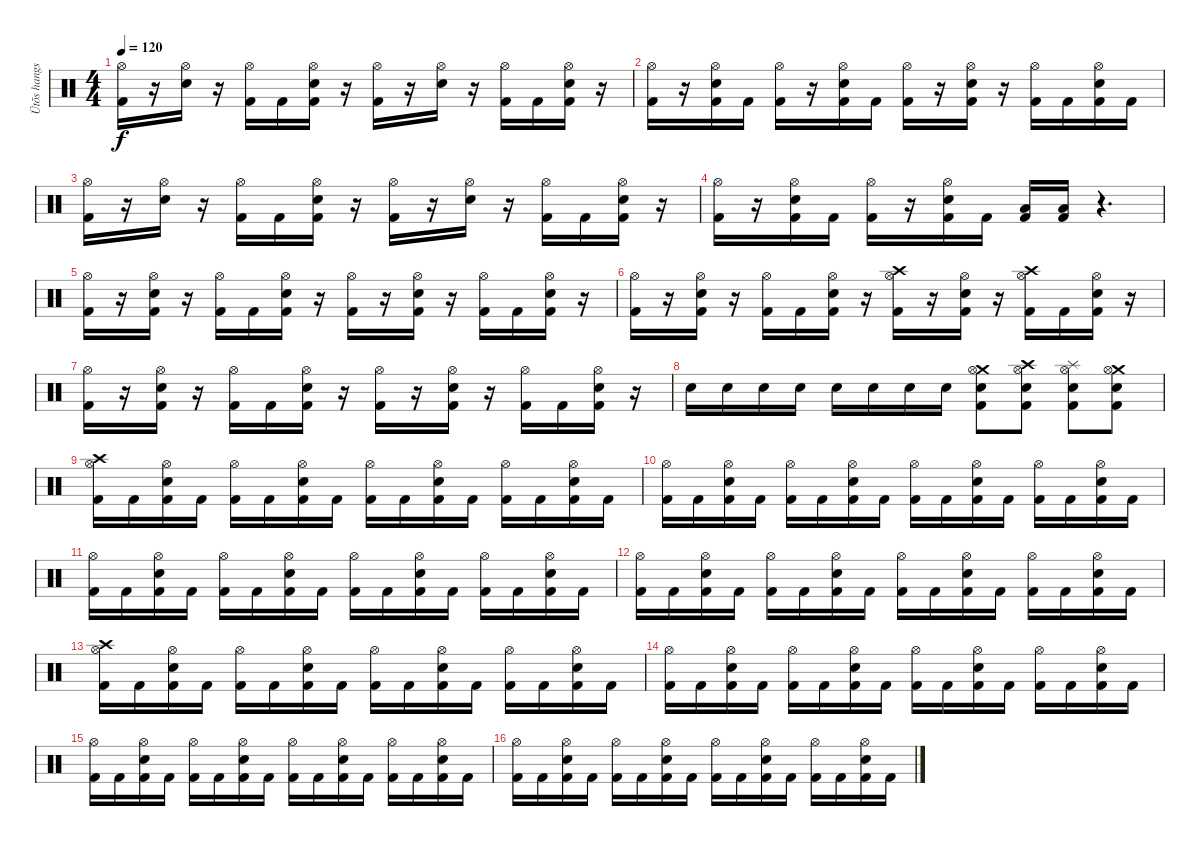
\track ("Ütõs hangszer" "Ütõs hangs") {instrument percussion}
\staff {score}
\articulation defaults
\ts (4 4)
\tempo 120
\clef neutral
\ks c
("Hi-Hat (open)" "Kick (hit) 2").16{dy f} r.16 ("Hi-Hat (open)" "Electric Snare (hit)").16 r.16 ("Hi-Hat (open)" "Kick (hit) 2").16 "Kick (hit) 2".16 ("Hi-Hat (open)" "Electric Snare (hit)" "Kick (hit) 2").16 r.16 ("Hi-Hat (open)" "Kick (hit) 2").16 r.16 ("Hi-Hat (open)" "Electric Snare (hit)").16 r.16 ("Hi-Hat (open)" "Kick (hit) 2").16 "Kick (hit) 2".16 ("Hi-Hat (open)" "Electric Snare (hit)" "Kick (hit) 2").16 r.16 |
("Hi-Hat (open)" "Kick (hit) 2").16 r.16 ("Hi-Hat (open)" "Electric Snare (hit)" "Kick (hit) 2").16 "Kick (hit) 2".16 ("Hi-Hat (open)" "Kick (hit) 2").16 r.16 ("Hi-Hat (open)" "Electric Snare (hit)" "Kick (hit) 2").16 "Kick (hit) 2".16 ("Hi-Hat (open)" "Kick (hit) 2").16 r.16 ("Hi-Hat (open)" "Electric Snare (hit)" "Kick (hit) 2").16 r.16 ("Hi-Hat (open)" "Kick (hit) 2").16 "Kick (hit) 2".16 ("Hi-Hat (open)" "Electric Snare (hit)" "Kick (hit) 2").16 "Kick (hit) 2".16 |
("Hi-Hat (open)" "Kick (hit) 2").16 r.16 ("Hi-Hat (open)" "Electric Snare (hit)").16 r.16 ("Hi-Hat (open)" "Kick (hit) 2").16 "Kick (hit) 2".16 ("Hi-Hat (open)" "Electric Snare (hit)" "Kick (hit) 2").16 r.16 ("Hi-Hat (open)" "Kick (hit) 2").16 r.16 ("Hi-Hat (open)" "Electric Snare (hit)").16 r.16 ("Hi-Hat (open)" "Kick (hit) 2").16 "Kick (hit) 2".16 ("Hi-Hat (open)" "Electric Snare (hit)" "Kick (hit) 2").16 r.16 |
("Hi-Hat (open)" "Kick (hit) 2").16 r.16 ("Hi-Hat (open)" "Electric Snare (hit)" "Kick (hit) 2").16 "Kick (hit) 2".16 ("Hi-Hat (open)" "Kick (hit) 2").16 r.16 ("Hi-Hat (open)" "Electric Snare (hit)" "Kick (hit) 2").16 "Kick (hit) 2".16 ("Low Floor Tom (hit)" "Kick (hit) 2").16 ("Low Floor Tom (hit)" "Kick (hit) 2").16 r.4{d} |
("Hi-Hat (open)" "Kick (hit) 2").16 r.16 ("Hi-Hat (open)" "Electric Snare (hit)" "Kick (hit) 2").16 r.16 ("Hi-Hat (open)" "Kick (hit) 2").16 "Kick (hit) 2".16 ("Hi-Hat (open)" "Electric Snare (hit)" "Kick (hit) 2").16 r.16 ("Hi-Hat (open)" "Kick (hit) 2").16 r.16 ("Hi-Hat (open)" "Electric Snare (hit)" "Kick (hit) 2").16 r.16 ("Hi-Hat (open)" "Kick (hit) 2").16 "Kick (hit) 2".16 ("Hi-Hat (open)" "Electric Snare (hit)" "Kick (hit) 2").16 r.16 |
("Hi-Hat (open)" "Kick (hit) 2").16 r.16 ("Hi-Hat (open)" "Electric Snare (hit)" "Kick (hit) 2").16 r.16 ("Hi-Hat (open)" "Kick (hit) 2").16 "Kick (hit) 2".16 ("Hi-Hat (open)" "Electric Snare (hit)" "Kick (hit) 2").16 r.16 ("Crash high (hit)" "Hi-Hat (open)" "Kick (hit) 2").16 r.16 ("Hi-Hat (open)" "Electric Snare (hit)" "Kick (hit) 2").16 r.16 ("Crash high (hit)" "Hi-Hat (open)" "Kick (hit) 2").16 "Kick (hit) 2".16 ("Hi-Hat (open)" "Electric Snare (hit)" "Kick (hit) 2").16 r.16 |
("Hi-Hat (open)" "Kick (hit) 2").16 r.16 ("Hi-Hat (open)" "Electric Snare (hit)" "Kick (hit) 2").16 r.16 ("Hi-Hat (open)" "Kick (hit) 2").16 "Kick (hit) 2".16 ("Hi-Hat (open)" "Electric Snare (hit)" "Kick (hit) 2").16 r.16 ("Hi-Hat (open)" "Kick (hit) 2").16 r.16 ("Hi-Hat (open)" "Electric Snare (hit)" "Kick (hit) 2").16 r.16 ("Hi-Hat (open)" "Kick (hit) 2").16 "Kick (hit) 2".16 ("Hi-Hat (open)" "Electric Snare (hit)" "Kick (hit) 2").16 r.16 |
"Electric Snare (hit)".16 "Electric Snare (hit)".16 "Electric Snare (hit)".16 "Electric Snare (hit)".16 "Electric Snare (hit)".16 "Electric Snare (hit)".16 "Electric Snare (hit)".16 "Electric Snare (hit)".16 ("Crash medium (hit)" "Hi-Hat (open)" "Electric Snare (hit)" "Kick (hit) 2").8 ("Crash high (hit)" "Hi-Hat (open)" "Electric Snare (hit)" "Kick (hit) 2").8 ("Splash (hit)" "Hi-Hat (open)" "Electric Snare (hit)" "Kick (hit) 2").8 ("Crash medium (hit)" "Hi-Hat (open)" "Electric Snare (hit)" "Kick (hit) 2").8 |
("Crash high (hit)" "Hi-Hat (open)" "Kick (hit) 2").16 "Kick (hit) 2".16 ("Hi-Hat (open)" "Electric Snare (hit)" "Kick (hit) 2").16 "Kick (hit) 2".16 ("Hi-Hat (open)" "Kick (hit) 2").16 "Kick (hit) 2".16 ("Hi-Hat (open)" "Electric Snare (hit)" "Kick (hit) 2").16 "Kick (hit) 2".16 ("Hi-Hat (open)" "Kick (hit) 2").16 "Kick (hit) 2".16 ("Hi-Hat (open)" "Electric Snare (hit)" "Kick (hit) 2").16 "Kick (hit) 2".16 ("Hi-Hat (open)" "Kick (hit) 2").16 "Kick (hit) 2".16 ("Hi-Hat (open)" "Electric Snare (hit)" "Kick (hit) 2").16 "Kick (hit) 2".16 |
("Hi-Hat (open)" "Kick (hit) 2").16 "Kick (hit) 2".16 ("Hi-Hat (open)" "Electric Snare (hit)" "Kick (hit) 2").16 "Kick (hit) 2".16 ("Hi-Hat (open)" "Kick (hit) 2").16 "Kick (hit) 2".16 ("Hi-Hat (open)" "Electric Snare (hit)" "Kick (hit) 2").16 "Kick (hit) 2".16 ("Hi-Hat (open)" "Kick (hit) 2").16 "Kick (hit) 2".16 ("Hi-Hat (open)" "Electric Snare (hit)" "Kick (hit) 2").16 "Kick (hit) 2".16 ("Hi-Hat (open)" "Kick (hit) 2").16 "Kick (hit) 2".16 ("Hi-Hat (open)" "Electric Snare (hit)" "Kick (hit) 2").16 "Kick (hit) 2".16 |
("Hi-Hat (open)" "Kick (hit) 2").16 "Kick (hit) 2".16 ("Hi-Hat (open)" "Electric Snare (hit)" "Kick (hit) 2").16 "Kick (hit) 2".16 ("Hi-Hat (open)" "Kick (hit) 2").16 "Kick (hit) 2".16 ("Hi-Hat (open)" "Electric Snare (hit)" "Kick (hit) 2").16 "Kick (hit) 2".16 ("Hi-Hat (open)" "Kick (hit) 2").16 "Kick (hit) 2".16 ("Hi-Hat (open)" "Electric Snare (hit)" "Kick (hit) 2").16 "Kick (hit) 2".16 ("Hi-Hat (open)" "Kick (hit) 2").16 "Kick (hit) 2".16 ("Hi-Hat (open)" "Electric Snare (hit)" "Kick (hit) 2").16 "Kick (hit) 2".16 |
("Hi-Hat (open)" "Kick (hit) 2").16 "Kick (hit) 2".16 ("Hi-Hat (open)" "Electric Snare (hit)" "Kick (hit) 2").16 "Kick (hit) 2".16 ("Hi-Hat (open)" "Kick (hit) 2").16 "Kick (hit) 2".16 ("Hi-Hat (open)" "Electric Snare (hit)" "Kick (hit) 2").16 "Kick (hit) 2".16 ("Hi-Hat (open)" "Kick (hit) 2").16 "Kick (hit) 2".16 ("Hi-Hat (open)" "Electric Snare (hit)" "Kick (hit) 2").16 "Kick (hit) 2".16 ("Hi-Hat (open)" "Kick (hit) 2").16 "Kick (hit) 2".16 ("Hi-Hat (open)" "Electric Snare (hit)" "Kick (hit) 2").16 "Kick (hit) 2".16 |
("Crash high (hit)" "Hi-Hat (open)" "Kick (hit) 2").16 "Kick (hit) 2".16 ("Hi-Hat (open)" "Electric Snare (hit)" "Kick (hit) 2").16 "Kick (hit) 2".16 ("Hi-Hat (open)" "Kick (hit) 2").16 "Kick (hit) 2".16 ("Hi-Hat (open)" "Electric Snare (hit)" "Kick (hit) 2").16 "Kick (hit) 2".16 ("Hi-Hat (open)" "Kick (hit) 2").16 "Kick (hit) 2".16 ("Hi-Hat (open)" "Electric Snare (hit)" "Kick (hit) 2").16 "Kick (hit) 2".16 ("Hi-Hat (open)" "Kick (hit) 2").16 "Kick (hit) 2".16 ("Hi-Hat (open)" "Electric Snare (hit)" "Kick (hit) 2").16 "Kick (hit) 2".16 |
("Hi-Hat (open)" "Kick (hit) 2").16 "Kick (hit) 2".16 ("Hi-Hat (open)" "Electric Snare (hit)" "Kick (hit) 2").16 "Kick (hit) 2".16 ("Hi-Hat (open)" "Kick (hit) 2").16 "Kick (hit) 2".16 ("Hi-Hat (open)" "Electric Snare (hit)" "Kick (hit) 2").16 "Kick (hit) 2".16 ("Hi-Hat (open)" "Kick (hit) 2").16 "Kick (hit) 2".16 ("Hi-Hat (open)" "Electric Snare (hit)" "Kick (hit) 2").16 "Kick (hit) 2".16 ("Hi-Hat (open)" "Kick (hit) 2").16 "Kick (hit) 2".16 ("Hi-Hat (open)" "Electric Snare (hit)" "Kick (hit) 2").16 "Kick (hit) 2".16 |
("Hi-Hat (open)" "Kick (hit) 2").16 "Kick (hit) 2".16 ("Hi-Hat (open)" "Electric Snare (hit)" "Kick (hit) 2").16 "Kick (hit) 2".16 ("Hi-Hat (open)" "Kick (hit) 2").16 "Kick (hit) 2".16 ("Hi-Hat (open)" "Electric Snare (hit)" "Kick (hit) 2").16 "Kick (hit) 2".16 ("Hi-Hat (open)" "Kick (hit) 2").16 "Kick (hit) 2".16 ("Hi-Hat (open)" "Electric Snare (hit)" "Kick (hit) 2").16 "Kick (hit) 2".16 ("Hi-Hat (open)" "Kick (hit) 2").16 "Kick (hit) 2".16 ("Hi-Hat (open)" "Electric Snare (hit)" "Kick (hit) 2").16 "Kick (hit) 2".16 |
("Hi-Hat (open)" "Kick (hit) 2").16 "Kick (hit) 2".16 ("Hi-Hat (open)" "Electric Snare (hit)" "Kick (hit) 2").16 "Kick (hit) 2".16 ("Hi-Hat (open)" "Kick (hit) 2").16 "Kick (hit) 2".16 ("Hi-Hat (open)" "Electric Snare (hit)" "Kick (hit) 2").16 "Kick (hit) 2".16 ("Hi-Hat (open)" "Kick (hit) 2").16 "Kick (hit) 2".16 ("Hi-Hat (open)" "Electric Snare (hit)" "Kick (hit) 2").16 "Kick (hit) 2".16 ("Hi-Hat (open)" "Kick (hit) 2").16 "Kick (hit) 2".16 ("Hi-Hat (open)" "Electric Snare (hit)" "Kick (hit) 2").16 "Kick (hit) 2".16
